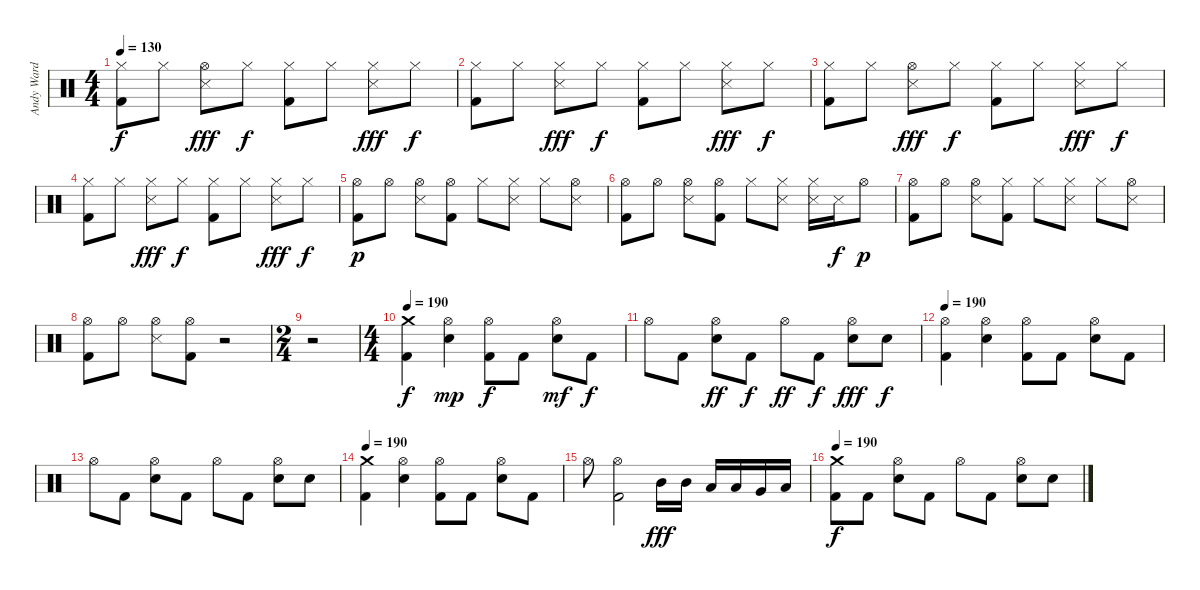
\track ("Andy Ward" "Andy Ward") {instrument percussion}
\staff {score}
\articulation defaults
\ts (4 4)
\tempo 130
\clef neutral
\ks c
("Hi-Hat (closed)" "Kick (hit) 2").8{dy f} "Hi-Hat (closed)".8 ("Hi-Hat (open)" "Snare (side stick) 3").8{dy fff} "Hi-Hat (closed)".8{dy f} ("Hi-Hat (closed)" "Kick (hit) 2").8 "Hi-Hat (closed)".8 ("Hi-Hat (closed)" "Snare (side stick) 3").8{dy fff} "Hi-Hat (closed)".8{dy f} |
("Hi-Hat (closed)" "Kick (hit) 2").8 "Hi-Hat (closed)".8 ("Hi-Hat (closed)" "Snare (side stick) 3").8{dy fff} "Hi-Hat (closed)".8{dy f} ("Hi-Hat (closed)" "Kick (hit) 2").8 "Hi-Hat (closed)".8 ("Hi-Hat (closed)" "Snare (side stick) 3").8{dy fff} "Hi-Hat (closed)".8{dy f} |
("Hi-Hat (closed)" "Kick (hit) 2").8 "Hi-Hat (closed)".8 ("Hi-Hat (open)" "Snare (side stick) 3").8{dy fff} "Hi-Hat (closed)".8{dy f} ("Hi-Hat (closed)" "Kick (hit) 2").8 "Hi-Hat (closed)".8 ("Hi-Hat (closed)" "Snare (side stick) 3").8{dy fff} "Hi-Hat (closed)".8{dy f} |
("Hi-Hat (closed)" "Kick (hit) 2").8 "Hi-Hat (closed)".8 ("Hi-Hat (closed)" "Snare (side stick) 3").8{dy fff} "Hi-Hat (closed)".8{dy f} ("Hi-Hat (closed)" "Kick (hit) 2").8 "Hi-Hat (closed)".8 ("Hi-Hat (closed)" "Snare (side stick) 3").8{dy fff} "Hi-Hat (closed)".8{dy f} |
("Hi-Hat (open)" "Kick (hit) 2").8{dy p} "Hi-Hat (open)".8 ("Hi-Hat (open)" "Snare (side stick) 3").8 ("Hi-Hat (open)" "Kick (hit) 2").8 "Hi-Hat (closed)".8 ("Hi-Hat (closed)" "Snare (side stick) 3").8 "Hi-Hat (closed)".8 ("Hi-Hat (open)" "Snare (side stick) 3").8 |
("Hi-Hat (open)" "Kick (hit) 2").8 "Hi-Hat (open)".8 ("Hi-Hat (open)" "Snare (side stick) 3").8 ("Hi-Hat (open)" "Kick (hit) 2").8 "Hi-Hat (closed)".8 ("Hi-Hat (closed)" "Snare (side stick) 3").8 ("Hi-Hat (closed)" "Snare (side stick) 3").16 "Snare (side stick) 3".16{dy f} "Hi-Hat (open)".8{dy p} |
("Hi-Hat (open)" "Kick (hit) 2").8 "Hi-Hat (open)".8 ("Hi-Hat (open)" "Snare (side stick) 3").8 ("Hi-Hat (closed)" "Kick (hit) 2").8 "Hi-Hat (closed)".8 ("Hi-Hat (closed)" "Snare (side stick) 3").8 "Hi-Hat (closed)".8 ("Hi-Hat (open)" "Snare (side stick) 3").8 |
("Hi-Hat (open)" "Kick (hit) 2").8 "Hi-Hat (open)".8 ("Hi-Hat (open)" "Snare (side stick) 3").8 ("Hi-Hat (open)" "Kick (hit) 2").8 r.2 |
\ts (2 4)
r.2 |
\ts (4 4)
\tempo 190
("Crash medium (hit)" "Kick (hit) 2").4{dy f} ("Hi-Hat (open)" "Snare (hit) 2").4{dy mp} ("Hi-Hat (open)" "Kick (hit) 2").8{dy f} "Kick (hit) 2".8 ("Hi-Hat (open)" "Snare (hit) 2").8{dy mf} "Kick (hit) 2".8{dy f} |
"Hi-Hat (open)".8 "Kick (hit) 2".8 ("Hi-Hat (open)" "Snare (hit) 2").8{dy ff} "Kick (hit) 2".8{dy f} "Hi-Hat (open)".8{dy ff} "Kick (hit) 2".8{dy f} ("Hi-Hat (open)" "Snare (hit) 2").8{dy fff} "Snare (hit) 2".8{dy f} |
\tempo 190
("Hi-Hat (open)" "Kick (hit) 2").4 ("Hi-Hat (open)" "Snare (hit) 2").4 ("Hi-Hat (open)" "Kick (hit) 2").8 "Kick (hit) 2".8 ("Hi-Hat (open)" "Snare (hit) 2").8 "Kick (hit) 2".8 |
"Hi-Hat (open)".8 "Kick (hit) 2".8 ("Hi-Hat (open)" "Snare (hit) 2").8 "Kick (hit) 2".8 "Hi-Hat (open)".8 "Kick (hit) 2".8 ("Hi-Hat (open)" "Snare (hit) 2").8 "Snare (hit) 2".8 |
\tempo 190
("Crash medium (hit)" "Kick (hit) 2").4 ("Hi-Hat (open)" "Snare (hit) 2").4 ("Hi-Hat (open)" "Kick (hit) 2").8 "Kick (hit) 2".8 ("Hi-Hat (open)" "Snare (hit) 2").8 "Kick (hit) 2".8 |
"Hi-Hat (open)".8 ("Hi-Hat (open)" "Kick (hit) 2").2 "Mid Tom (hit)".16{dy fff} "Mid Tom (hit)".16 "Low Tom (hit)".16 "Low Tom (hit)".16 "Very Low Tom (hit)".16 "Low Floor Tom (hit)".16 |
\tempo 190
("Crash medium (hit)" "Kick (hit) 2").8{dy f} "Kick (hit) 2".8 ("Hi-Hat (open)" "Snare (hit) 2").8 "Kick (hit) 2".8 "Hi-Hat (open)".8 "Kick (hit) 2".8 ("Hi-Hat (open)" "Snare (hit) 2").8 "Snare (hit) 2".8
